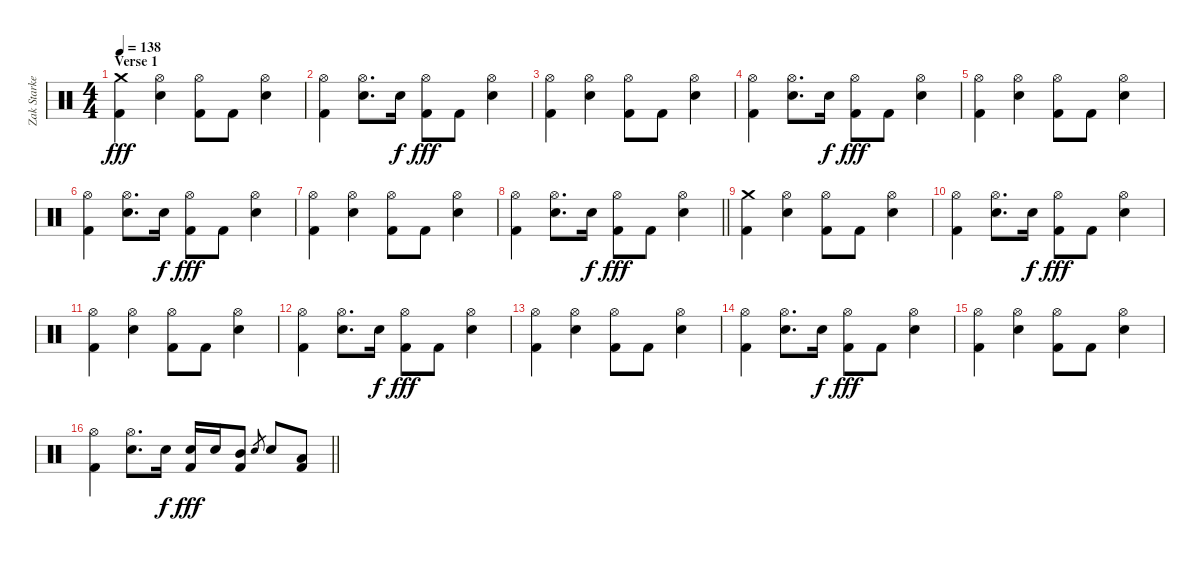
\track ("Zak Starkey" "Zak Starke") {instrument percussion}
\staff {score}
\articulation defaults
\ts (4 4)
\section ("" "Verse 1")
\tempo 138
\clef neutral
\ks c
("Crash medium (hit)" "Kick (hit) 2").4{dy fff} ("Hi-Hat (open)" "Snare (hit) 2").4 ("Hi-Hat (open)" "Kick (hit) 2").8 "Kick (hit) 2".8 ("Hi-Hat (open)" "Snare (hit) 2").4 |
("Hi-Hat (open)" "Kick (hit) 2").4 ("Hi-Hat (open)" "Snare (hit) 2").8{d} "Snare (hit) 2".16{dy f} ("Hi-Hat (open)" "Kick (hit) 2").8{dy fff} "Kick (hit) 2".8 ("Hi-Hat (open)" "Snare (hit) 2").4 |
("Hi-Hat (open)" "Kick (hit) 2").4 ("Hi-Hat (open)" "Snare (hit) 2").4 ("Hi-Hat (open)" "Kick (hit) 2").8 "Kick (hit) 2".8 ("Hi-Hat (open)" "Snare (hit) 2").4 |
("Hi-Hat (open)" "Kick (hit) 2").4 ("Hi-Hat (open)" "Snare (hit) 2").8{d} "Snare (hit) 2".16{dy f} ("Hi-Hat (open)" "Kick (hit) 2").8{dy fff} "Kick (hit) 2".8 ("Hi-Hat (open)" "Snare (hit) 2").4 |
("Hi-Hat (open)" "Kick (hit) 2").4 ("Hi-Hat (open)" "Snare (hit) 2").4 ("Hi-Hat (open)" "Kick (hit) 2").8 "Kick (hit) 2".8 ("Hi-Hat (open)" "Snare (hit) 2").4 |
("Hi-Hat (open)" "Kick (hit) 2").4 ("Hi-Hat (open)" "Snare (hit) 2").8{d} "Snare (hit) 2".16{dy f} ("Hi-Hat (open)" "Kick (hit) 2").8{dy fff} "Kick (hit) 2".8 ("Hi-Hat (open)" "Snare (hit) 2").4 |
("Hi-Hat (open)" "Kick (hit) 2").4 ("Hi-Hat (open)" "Snare (hit) 2").4 ("Hi-Hat (open)" "Kick (hit) 2").8 "Kick (hit) 2".8 ("Hi-Hat (open)" "Snare (hit) 2").4 |
\barLineRight lightlight
("Hi-Hat (open)" "Kick (hit) 2").4 ("Hi-Hat (open)" "Snare (hit) 2").8{d} "Snare (hit) 2".16{dy f} ("Hi-Hat (open)" "Kick (hit) 2").8{dy fff} "Kick (hit) 2".8 ("Hi-Hat (open)" "Snare (hit) 2").4 |
("Crash medium (hit)" "Kick (hit) 2").4 ("Hi-Hat (open)" "Snare (hit) 2").4 ("Hi-Hat (open)" "Kick (hit) 2").8 "Kick (hit) 2".8 ("Hi-Hat (open)" "Snare (hit) 2").4 |
("Hi-Hat (open)" "Kick (hit) 2").4 ("Hi-Hat (open)" "Snare (hit) 2").8{d} "Snare (hit) 2".16{dy f} ("Hi-Hat (open)" "Kick (hit) 2").8{dy fff} "Kick (hit) 2".8 ("Hi-Hat (open)" "Snare (hit) 2").4 |
("Hi-Hat (open)" "Kick (hit) 2").4 ("Hi-Hat (open)" "Snare (hit) 2").4 ("Hi-Hat (open)" "Kick (hit) 2").8 "Kick (hit) 2".8 ("Hi-Hat (open)" "Snare (hit) 2").4 |
("Hi-Hat (open)" "Kick (hit) 2").4 ("Hi-Hat (open)" "Snare (hit) 2").8{d} "Snare (hit) 2".16{dy f} ("Hi-Hat (open)" "Kick (hit) 2").8{dy fff} "Kick (hit) 2".8 ("Hi-Hat (open)" "Snare (hit) 2").4 |
("Hi-Hat (open)" "Kick (hit) 2").4 ("Hi-Hat (open)" "Snare (hit) 2").4 ("Hi-Hat (open)" "Kick (hit) 2").8 "Kick (hit) 2".8 ("Hi-Hat (open)" "Snare (hit) 2").4 |
("Hi-Hat (open)" "Kick (hit) 2").4 ("Hi-Hat (open)" "Snare (hit) 2").8{d} "Snare (hit) 2".16{dy f} ("Hi-Hat (open)" "Kick (hit) 2").8{dy fff} "Kick (hit) 2".8 ("Hi-Hat (open)" "Snare (hit) 2").4 |
("Hi-Hat (open)" "Kick (hit) 2").4 ("Hi-Hat (open)" "Snare (hit) 2").4 ("Hi-Hat (open)" "Kick (hit) 2").8 "Kick (hit) 2".8 ("Hi-Hat (open)" "Snare (hit) 2").4 |
\barLineRight lightlight
("Hi-Hat (open)" "Kick (hit) 2").4 ("Hi-Hat (open)" "Snare (hit) 2").8{d} "Snare (hit) 2".16{dy f} ("Snare (hit) 2" "Kick (hit) 2").16{dy fff} "Snare (hit) 2".16 ("Mid Tom (hit)" "Kick (hit) 2").8 "Snare (hit) 2".8{gr} "Snare (hit) 2".8 ("Low Tom (hit)" "Kick (hit) 2").8
